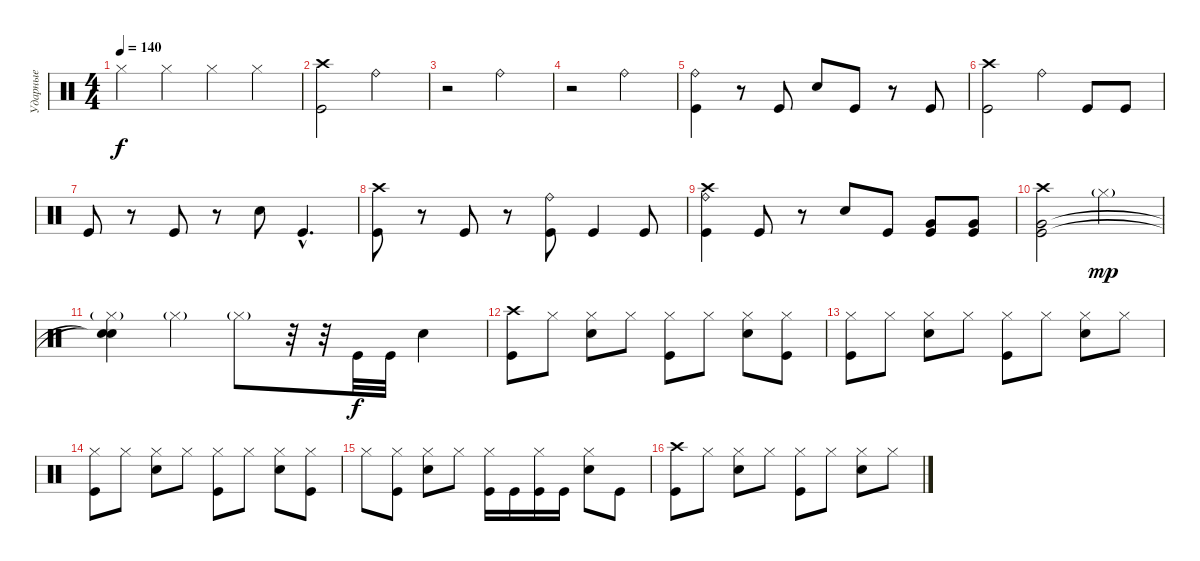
\track ("Ударные" "Ударные") {instrument percussion}
\staff {score}
\articulation defaults
\ts (4 4)
\tempo 140
\clef neutral
\ks c "Hi-Hat (closed)".4{dy f} "Hi-Hat (closed)".4 "Hi-Hat (closed)".4 "Hi-Hat (closed)".4
|
("Crash high (hit)" "Kick (hit)").2 "Ride (bell)".2 |
r.2 "Ride (bell)".2 |
r.2 "Ride (bell)".2 |
("Ride (bell)" "Kick (hit)").4 r.8 "Kick (hit)".8 "Electric Snare (hit)".8 "Kick (hit)".8 r.8 "Kick (hit)".8 |
("Crash high (hit)" "Kick (hit)").2 "Ride (bell)".4 "Kick (hit)".8 "Kick (hit)".8 |
"Kick (hit)".8 r.8 "Kick (hit)".8 r.8 "Electric Snare (hit)".8 "Kick (hit)"{hac}.4{d} |
("Crash high (hit)" "Kick (hit)").8 r.8 "Kick (hit)".8 r.8 ("Ride (bell)" "Kick (hit)").8 "Kick (hit)".4 "Kick (hit)".8 |
("Crash high (hit)" "Ride (bell)" "Kick (hit)").4 "Kick (hit)".8 r.8 "Electric Snare (hit)".8 "Kick (hit)".8 ("Very Low Tom (hit)" "Kick (hit)").8 ("Very Low Tom (hit)" "Kick (hit)").8 |
("Crash high (hit)" "Very Low Tom (hit)" "Kick (hit)").2 "Hi-Hat (closed)"{g}.2{dy mp} |
("Hi-Hat (closed)"{g} "Snare (hit)"{t} "Snare (hit)"{t}).4 "Hi-Hat (closed)"{g}.4 "Hi-Hat (closed)"{g}.8 r.32 r.32 "Kick (hit)".32{dy f} "Kick (hit)".32 "Electric Snare (hit)".4 |
("Crash high (hit)" "Kick (hit)").8 "Hi-Hat (closed)".8 ("Hi-Hat (closed)" "Electric Snare (hit)").8 "Hi-Hat (closed)".8 ("Hi-Hat (closed)" "Kick (hit)").8 "Hi-Hat (closed)".8 ("Hi-Hat (closed)" "Electric Snare (hit)").8 ("Hi-Hat (closed)" "Kick (hit)").8 |
("Hi-Hat (closed)" "Kick (hit)").8 "Hi-Hat (closed)".8 ("Hi-Hat (closed)" "Electric Snare (hit)").8 "Hi-Hat (closed)".8 ("Hi-Hat (closed)" "Kick (hit)").8 "Hi-Hat (closed)".8 ("Hi-Hat (closed)" "Electric Snare (hit)").8 "Hi-Hat (closed)".8 |
("Hi-Hat (closed)" "Kick (hit)").8 "Hi-Hat (closed)".8 ("Hi-Hat (closed)" "Electric Snare (hit)").8 "Hi-Hat (closed)".8 ("Hi-Hat (closed)" "Kick (hit)").8 "Hi-Hat (closed)".8 ("Hi-Hat (closed)" "Electric Snare (hit)").8 ("Hi-Hat (closed)" "Kick (hit)").8 |
"Hi-Hat (closed)".8 ("Hi-Hat (closed)" "Kick (hit)").8 ("Hi-Hat (closed)" "Electric Snare (hit)").8 "Hi-Hat (closed)".8 ("Hi-Hat (closed)" "Kick (hit)").16 "Kick (hit)".16 ("Hi-Hat (closed)" "Kick (hit)").16 "Kick (hit)".16 ("Hi-Hat (closed)" "Electric Snare (hit)").8 "Kick (hit)".8 |
("Crash high (hit)" "Kick (hit)").8 "Hi-Hat (closed)".8 ("Hi-Hat (closed)" "Electric Snare (hit)").8 "Hi-Hat (closed)".8 ("Hi-Hat (closed)" "Kick (hit)").8 "Hi-Hat (closed)".8 ("Hi-Hat (closed)" "Electric Snare (hit)").8 "Hi-Hat (closed)".8
